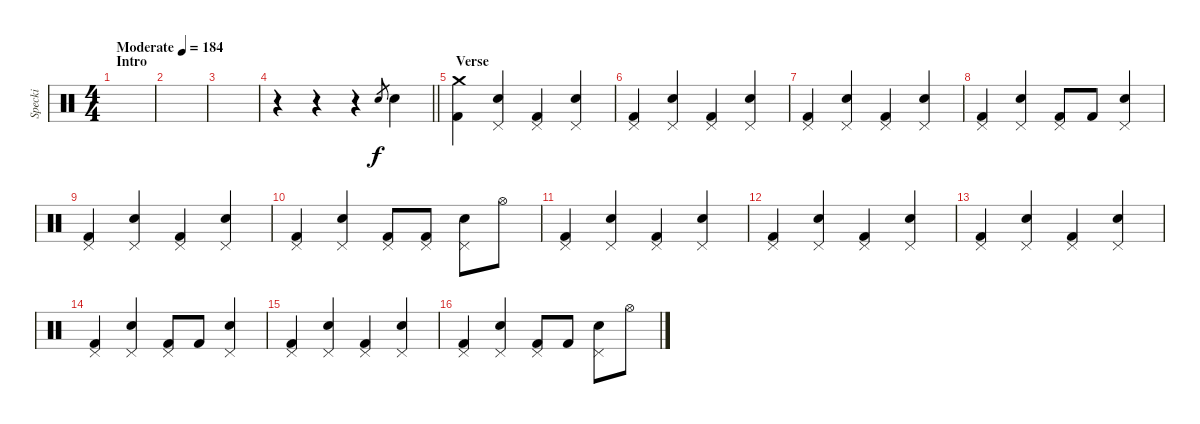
\track ("Specki" "Specki") {instrument percussion}
\staff {score}
\articulation defaults
\ts (4 4)
\section ("" "Intro")
\tempo (184 "Moderate")
\clef neutral
\ks c
|
|
|
\barLineRight lightlight
r.4 r.4 r.4 "Electric Snare (hit)".8{gr} "Electric Snare (hit)".4 |
\section ("" " Verse")
("Crash medium (hit)" "Kick (hit) 2").4 ("Pedal Hi-Hat (hit)" "Electric Snare (hit)").4 ("Pedal Hi-Hat (hit)" "Kick (hit) 2").4 ("Pedal Hi-Hat (hit)" "Electric Snare (hit)").4 |
("Pedal Hi-Hat (hit)" "Kick (hit) 2").4 ("Pedal Hi-Hat (hit)" "Electric Snare (hit)").4 ("Pedal Hi-Hat (hit)" "Kick (hit) 2").4 ("Pedal Hi-Hat (hit)" "Electric Snare (hit)").4 |
("Pedal Hi-Hat (hit)" "Kick (hit) 2").4 ("Pedal Hi-Hat (hit)" "Electric Snare (hit)").4 ("Pedal Hi-Hat (hit)" "Kick (hit) 2").4 ("Pedal Hi-Hat (hit)" "Electric Snare (hit)").4 |
("Pedal Hi-Hat (hit)" "Kick (hit) 2").4 ("Pedal Hi-Hat (hit)" "Electric Snare (hit)").4 ("Pedal Hi-Hat (hit)" "Kick (hit) 2").8 "Kick (hit) 2".8 ("Pedal Hi-Hat (hit)" "Electric Snare (hit)").4 |
("Pedal Hi-Hat (hit)" "Kick (hit) 2").4 ("Pedal Hi-Hat (hit)" "Electric Snare (hit)").4 ("Pedal Hi-Hat (hit)" "Kick (hit) 2").4 ("Pedal Hi-Hat (hit)" "Electric Snare (hit)").4 |
("Pedal Hi-Hat (hit)" "Kick (hit) 2").4 ("Pedal Hi-Hat (hit)" "Electric Snare (hit)").4 ("Pedal Hi-Hat (hit)" "Kick (hit) 2").8 ("Pedal Hi-Hat (hit)" "Kick (hit) 2").8 ("Pedal Hi-Hat (hit)" "Electric Snare (hit)").8 "Hi-Hat (open)".8 |
("Pedal Hi-Hat (hit)" "Kick (hit) 2").4 ("Pedal Hi-Hat (hit)" "Electric Snare (hit)").4 ("Pedal Hi-Hat (hit)" "Kick (hit) 2").4 ("Pedal Hi-Hat (hit)" "Electric Snare (hit)").4 |
("Pedal Hi-Hat (hit)" "Kick (hit) 2").4 ("Pedal Hi-Hat (hit)" "Electric Snare (hit)").4 ("Pedal Hi-Hat (hit)" "Kick (hit) 2").4 ("Pedal Hi-Hat (hit)" "Electric Snare (hit)").4 |
("Pedal Hi-Hat (hit)" "Kick (hit) 2").4 ("Pedal Hi-Hat (hit)" "Electric Snare (hit)").4 ("Pedal Hi-Hat (hit)" "Kick (hit) 2").4 ("Pedal Hi-Hat (hit)" "Electric Snare (hit)").4 |
("Pedal Hi-Hat (hit)" "Kick (hit) 2").4 ("Pedal Hi-Hat (hit)" "Electric Snare (hit)").4 ("Pedal Hi-Hat (hit)" "Kick (hit) 2").8 "Kick (hit) 2".8 ("Pedal Hi-Hat (hit)" "Electric Snare (hit)").4 |
("Pedal Hi-Hat (hit)" "Kick (hit) 2").4 ("Pedal Hi-Hat (hit)" "Electric Snare (hit)").4 ("Pedal Hi-Hat (hit)" "Kick (hit) 2").4 ("Pedal Hi-Hat (hit)" "Electric Snare (hit)").4 |
("Pedal Hi-Hat (hit)" "Kick (hit) 2").4 ("Pedal Hi-Hat (hit)" "Electric Snare (hit)").4 ("Pedal Hi-Hat (hit)" "Kick (hit) 2").8 "Kick (hit) 2".8 ("Pedal Hi-Hat (hit)" "Electric Snare (hit)").8 "Hi-Hat (open)".8
